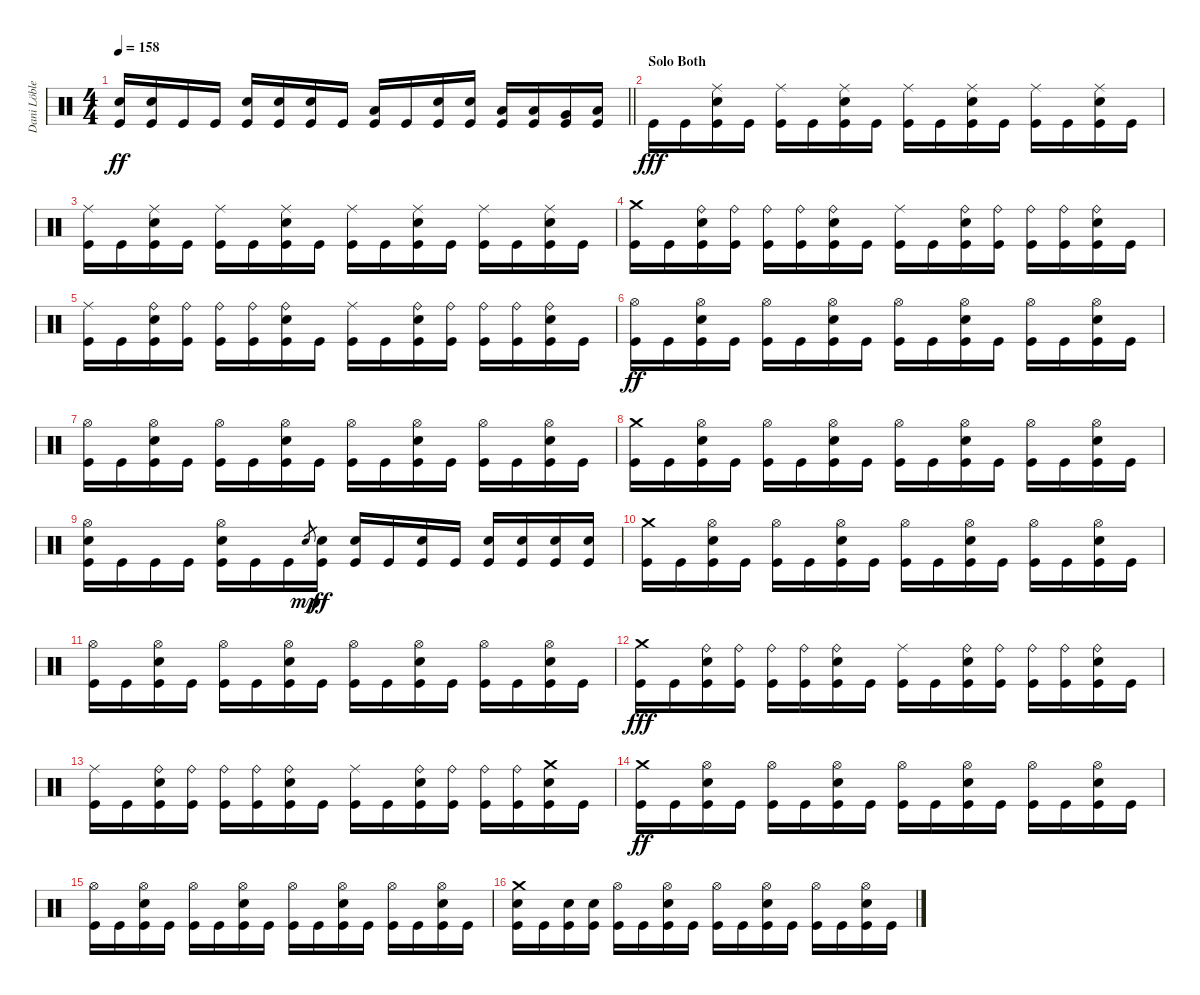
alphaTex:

\track ("Dani Löble" "Dani Löble") {instrument percussion}
\staff {score}
\articulation defaults
\ts (4 4)
\tempo 158
\clef neutral
\barLineRight lightlight
\ks c
("Electric Snare (hit)" "Kick (hit)").16{dy ff} ("Electric Snare (hit)" "Kick (hit)").16 "Kick (hit)".16 "Kick (hit)".16 ("Electric Snare (hit)" "Kick (hit)").16 ("Electric Snare (hit)" "Kick (hit)").16 ("Electric Snare (hit)" "Kick (hit)").16 "Kick (hit)".16 ("Low Tom (hit)" "Kick (hit)").16 "Kick (hit)".16 ("Electric Snare (hit)" "Kick (hit)").16 ("Electric Snare (hit)" "Kick (hit)").16 ("Low Tom (hit)" "Kick (hit)").16 ("Low Tom (hit)" "Kick (hit)").16 ("Very Low Tom (hit)" "Kick (hit)").16 ("Low Floor Tom (hit)" "Kick (hit)").16 |
\section ("" "Solo Both")
"Kick (hit)".16{dy fff} "Kick (hit)".16 ("Ride (middle)" "Electric Snare (hit)" "Kick (hit)").16 "Kick (hit)".16 ("Ride (middle)" "Kick (hit)").16 "Kick (hit)".16 ("Ride (middle)" "Electric Snare (hit)" "Kick (hit)").16 "Kick (hit)".16 ("Ride (middle)" "Kick (hit)").16 "Kick (hit)".16 ("Ride (middle)" "Electric Snare (hit)" "Kick (hit)").16 "Kick (hit)".16 ("Ride (middle)" "Kick (hit)").16 "Kick (hit)".16 ("Ride (middle)" "Electric Snare (hit)" "Kick (hit)").16 "Kick (hit)".16 |
("Ride (middle)" "Kick (hit)").16 "Kick (hit)".16 ("Ride (middle)" "Electric Snare (hit)" "Kick (hit)").16 "Kick (hit)".16 ("Ride (middle)" "Kick (hit)").16 "Kick (hit)".16 ("Ride (middle)" "Electric Snare (hit)" "Kick (hit)").16 "Kick (hit)".16 ("Ride (middle)" "Kick (hit)").16 "Kick (hit)".16 ("Ride (middle)" "Electric Snare (hit)" "Kick (hit)").16 "Kick (hit)".16 ("Ride (middle)" "Kick (hit)").16 "Kick (hit)".16 ("Ride (middle)" "Electric Snare (hit)" "Kick (hit)").16 "Kick (hit)".16 |
("Crash medium (hit)" "Kick (hit)").16 "Kick (hit)".16 ("Ride (bell)" "Electric Snare (hit)" "Kick (hit)").16 ("Ride (bell)" "Kick (hit)").16 ("Ride (bell)" "Kick (hit)").16 ("Ride (bell)" "Kick (hit)").16 ("Ride (bell)" "Electric Snare (hit)" "Kick (hit)").16 "Kick (hit)".16 ("Ride (middle)" "Kick (hit)").16 "Kick (hit)".16 ("Ride (bell)" "Electric Snare (hit)" "Kick (hit)").16 ("Ride (bell)" "Kick (hit)").16 ("Ride (bell)" "Kick (hit)").16 ("Ride (bell)" "Kick (hit)").16 ("Ride (bell)" "Electric Snare (hit)" "Kick (hit)").16 "Kick (hit)".16 |
("Ride (middle)" "Kick (hit)").16 "Kick (hit)".16 ("Ride (bell)" "Electric Snare (hit)" "Kick (hit)").16 ("Ride (bell)" "Kick (hit)").16 ("Ride (bell)" "Kick (hit)").16 ("Ride (bell)" "Kick (hit)").16 ("Ride (bell)" "Electric Snare (hit)" "Kick (hit)").16 "Kick (hit)".16 ("Ride (middle)" "Kick (hit)").16 "Kick (hit)".16 ("Ride (bell)" "Electric Snare (hit)" "Kick (hit)").16 ("Ride (bell)" "Kick (hit)").16 ("Ride (bell)" "Kick (hit)").16 ("Ride (bell)" "Kick (hit)").16 ("Ride (bell)" "Electric Snare (hit)" "Kick (hit)").16 "Kick (hit)".16 |
("Hi-Hat (open)" "Kick (hit)").16{dy ff} "Kick (hit)".16 ("Hi-Hat (open)" "Electric Snare (hit)" "Kick (hit)").16 "Kick (hit)".16 ("Hi-Hat (open)" "Kick (hit)").16 "Kick (hit)".16 ("Hi-Hat (open)" "Electric Snare (hit)" "Kick (hit)").16 "Kick (hit)".16 ("Hi-Hat (open)" "Kick (hit)").16 "Kick (hit)".16 ("Hi-Hat (open)" "Electric Snare (hit)" "Kick (hit)").16 "Kick (hit)".16 ("Hi-Hat (open)" "Kick (hit)").16 "Kick (hit)".16 ("Hi-Hat (open)" "Electric Snare (hit)" "Kick (hit)").16 "Kick (hit)".16 |
("Hi-Hat (open)" "Kick (hit)").16 "Kick (hit)".16 ("Hi-Hat (open)" "Electric Snare (hit)" "Kick (hit)").16 "Kick (hit)".16 ("Hi-Hat (open)" "Kick (hit)").16 "Kick (hit)".16 ("Hi-Hat (open)" "Electric Snare (hit)" "Kick (hit)").16 "Kick (hit)".16 ("Hi-Hat (open)" "Kick (hit)").16 "Kick (hit)".16 ("Hi-Hat (open)" "Electric Snare (hit)" "Kick (hit)").16 "Kick (hit)".16 ("Hi-Hat (open)" "Kick (hit)").16 "Kick (hit)".16 ("Hi-Hat (open)" "Electric Snare (hit)" "Kick (hit)").16 "Kick (hit)".16 |
("Crash medium (hit)" "Kick (hit)").16 "Kick (hit)".16 ("Hi-Hat (open)" "Electric Snare (hit)" "Kick (hit)").16 "Kick (hit)".16 ("Hi-Hat (open)" "Kick (hit)").16 "Kick (hit)".16 ("Hi-Hat (open)" "Electric Snare (hit)" "Kick (hit)").16 "Kick (hit)".16 ("Hi-Hat (open)" "Kick (hit)").16 "Kick (hit)".16 ("Hi-Hat (open)" "Electric Snare (hit)" "Kick (hit)").16 "Kick (hit)".16 ("Hi-Hat (open)" "Kick (hit)").16 "Kick (hit)".16 ("Hi-Hat (open)" "Electric Snare (hit)" "Kick (hit)").16 "Kick (hit)".16 |
("Hi-Hat (open)" "Electric Snare (hit)" "Kick (hit)").16 "Kick (hit)".16 "Kick (hit)".16 "Kick (hit)".16 ("Hi-Hat (open)" "Electric Snare (hit)" "Kick (hit)").16 "Kick (hit)".16 "Kick (hit)".16 "Electric Snare (hit)".8{gr dy mp} ("Electric Snare (hit)" "Kick (hit)").16{dy ff} ("Electric Snare (hit)" "Kick (hit)").16 "Kick (hit)".16 ("Electric Snare (hit)" "Kick (hit)").16 "Kick (hit)".16 ("Electric Snare (hit)" "Kick (hit)").16 ("Electric Snare (hit)" "Kick (hit)").16 ("Electric Snare (hit)" "Kick (hit)").16 ("Electric Snare (hit)" "Kick (hit)").16 |
("Crash medium (hit)" "Kick (hit)").16 "Kick (hit)".16 ("Hi-Hat (open)" "Electric Snare (hit)" "Kick (hit)").16 "Kick (hit)".16 ("Hi-Hat (open)" "Kick (hit)").16 "Kick (hit)".16 ("Hi-Hat (open)" "Electric Snare (hit)" "Kick (hit)").16 "Kick (hit)".16 ("Hi-Hat (open)" "Kick (hit)").16 "Kick (hit)".16 ("Hi-Hat (open)" "Electric Snare (hit)" "Kick (hit)").16 "Kick (hit)".16 ("Hi-Hat (open)" "Kick (hit)").16 "Kick (hit)".16 ("Hi-Hat (open)" "Electric Snare (hit)" "Kick (hit)").16 "Kick (hit)".16 |
("Hi-Hat (open)" "Kick (hit)").16 "Kick (hit)".16 ("Hi-Hat (open)" "Electric Snare (hit)" "Kick (hit)").16 "Kick (hit)".16 ("Hi-Hat (open)" "Kick (hit)").16 "Kick (hit)".16 ("Hi-Hat (open)" "Electric Snare (hit)" "Kick (hit)").16 "Kick (hit)".16 ("Hi-Hat (open)" "Kick (hit)").16 "Kick (hit)".16 ("Hi-Hat (open)" "Electric Snare (hit)" "Kick (hit)").16 "Kick (hit)".16 ("Hi-Hat (open)" "Kick (hit)").16 "Kick (hit)".16 ("Hi-Hat (open)" "Electric Snare (hit)" "Kick (hit)").16 "Kick (hit)".16 |
("Crash medium (hit)" "Kick (hit)").16{dy fff} "Kick (hit)".16 ("Ride (bell)" "Electric Snare (hit)" "Kick (hit)").16 ("Ride (bell)" "Kick (hit)").16 ("Ride (bell)" "Kick (hit)").16 ("Ride (bell)" "Kick (hit)").16 ("Ride (bell)" "Electric Snare (hit)" "Kick (hit)").16 "Kick (hit)".16 ("Ride (middle)" "Kick (hit)").16 "Kick (hit)".16 ("Ride (bell)" "Electric Snare (hit)" "Kick (hit)").16 ("Ride (bell)" "Kick (hit)").16 ("Ride (bell)" "Kick (hit)").16 ("Ride (bell)" "Kick (hit)").16 ("Ride (bell)" "Electric Snare (hit)" "Kick (hit)").16 "Kick (hit)".16 |
("Ride (middle)" "Kick (hit)").16 "Kick (hit)".16 ("Ride (bell)" "Electric Snare (hit)" "Kick (hit)").16 ("Ride (bell)" "Kick (hit)").16 ("Ride (bell)" "Kick (hit)").16 ("Ride (bell)" "Kick (hit)").16 ("Ride (bell)" "Electric Snare (hit)" "Kick (hit)").16 "Kick (hit)".16 ("Ride (middle)" "Kick (hit)").16 "Kick (hit)".16 ("Ride (bell)" "Electric Snare (hit)" "Kick (hit)").16 ("Ride (bell)" "Kick (hit)").16 ("Ride (bell)" "Kick (hit)").16 ("Ride (bell)" "Kick (hit)").16 ("Crash medium (hit)" "Electric Snare (hit)" "Kick (hit)").16 "Kick (hit)".16 |
("Crash medium (hit)" "Kick (hit)").16{dy ff} "Kick (hit)".16 ("Hi-Hat (open)" "Electric Snare (hit)" "Kick (hit)").16 "Kick (hit)".16 ("Hi-Hat (open)" "Kick (hit)").16 "Kick (hit)".16 ("Hi-Hat (open)" "Electric Snare (hit)" "Kick (hit)").16 "Kick (hit)".16 ("Hi-Hat (open)" "Kick (hit)").16 "Kick (hit)".16 ("Hi-Hat (open)" "Electric Snare (hit)" "Kick (hit)").16 "Kick (hit)".16 ("Hi-Hat (open)" "Kick (hit)").16 "Kick (hit)".16 ("Hi-Hat (open)" "Electric Snare (hit)" "Kick (hit)").16 "Kick (hit)".16 |
("Hi-Hat (open)" "Kick (hit)").16 "Kick (hit)".16 ("Hi-Hat (open)" "Electric Snare (hit)" "Kick (hit)").16 "Kick (hit)".16 ("Hi-Hat (open)" "Kick (hit)").16 "Kick (hit)".16 ("Hi-Hat (open)" "Electric Snare (hit)" "Kick (hit)").16 "Kick (hit)".16 ("Hi-Hat (open)" "Kick (hit)").16 "Kick (hit)".16 ("Hi-Hat (open)" "Electric Snare (hit)" "Kick (hit)").16 "Kick (hit)".16 ("Hi-Hat (open)" "Kick (hit)").16 "Kick (hit)".16 ("Hi-Hat (open)" "Electric Snare (hit)" "Kick (hit)").16 "Kick (hit)".16 |
("Crash medium (hit)" "Electric Snare (hit)" "Kick (hit)").16 "Kick (hit)".16 ("Electric Snare (hit)" "Kick (hit)").16 ("Electric Snare (hit)" "Kick (hit)").16 ("Hi-Hat (open)" "Kick (hit)").16 "Kick (hit)".16 ("Hi-Hat (open)" "Electric Snare (hit)" "Kick (hit)").16 "Kick (hit)".16 ("Hi-Hat (open)" "Kick (hit)").16 "Kick (hit)".16 ("Hi-Hat (open)" "Electric Snare (hit)" "Kick (hit)").16 "Kick (hit)".16 ("Hi-Hat (open)" "Kick (hit)").16 "Kick (hit)".16 ("Hi-Hat (open)" "Electric Snare (hit)" "Kick (hit)").16 "Kick (hit)".16
